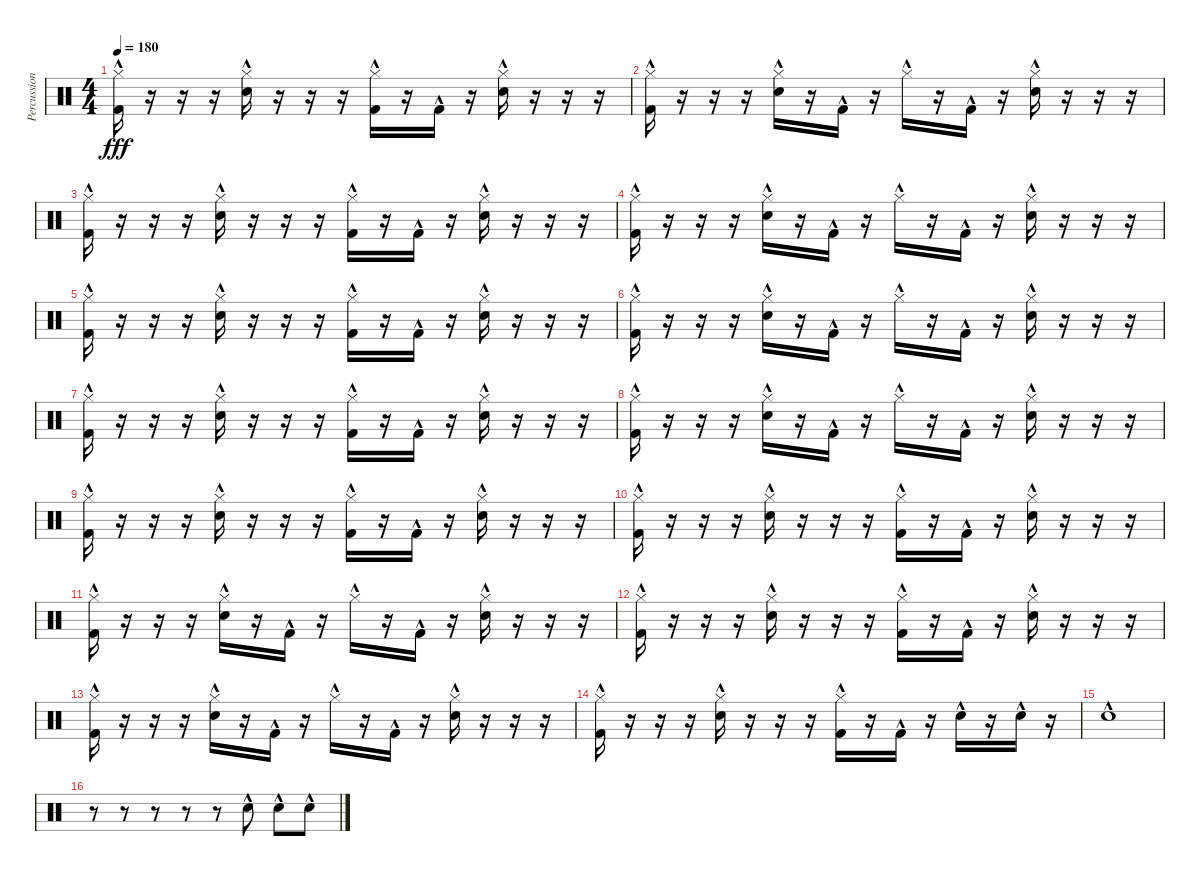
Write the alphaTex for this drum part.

\track ("Percussion" "Percussion") {instrument percussion bank 2}
\staff {score}
\articulation defaults
\ts (4 4)
\tempo 180
\clef neutral
\ks c
("Hi-Hat (closed)"{hac} "Kick (hit) 2"{hac}).16{dy fff} r.16 r.16 r.16 ("Hi-Hat (closed)"{hac} "Snare (hit) 2"{hac}).16 r.16 r.16 r.16 ("Hi-Hat (closed)"{hac} "Kick (hit) 2"{hac}).16 r.16 "Kick (hit) 2"{hac}.16 r.16 ("Hi-Hat (closed)"{hac} "Snare (hit) 2"{hac}).16 r.16 r.16 r.16 |
("Hi-Hat (closed)"{hac} "Kick (hit) 2"{hac}).16 r.16 r.16 r.16 ("Hi-Hat (closed)"{hac} "Snare (hit) 2"{hac}).16 r.16 "Kick (hit) 2"{hac}.16 r.16 "Hi-Hat (closed)"{hac}.16 r.16 "Kick (hit) 2"{hac}.16 r.16 ("Hi-Hat (closed)"{hac} "Snare (hit) 2"{hac}).16 r.16 r.16 r.16 |
("Hi-Hat (closed)"{hac} "Kick (hit) 2"{hac}).16 r.16 r.16 r.16 ("Hi-Hat (closed)"{hac} "Snare (hit) 2"{hac}).16 r.16 r.16 r.16 ("Hi-Hat (closed)"{hac} "Kick (hit) 2"{hac}).16 r.16 "Kick (hit) 2"{hac}.16 r.16 ("Hi-Hat (closed)"{hac} "Snare (hit) 2"{hac}).16 r.16 r.16 r.16 |
("Hi-Hat (closed)"{hac} "Kick (hit) 2"{hac}).16 r.16 r.16 r.16 ("Hi-Hat (closed)"{hac} "Snare (hit) 2"{hac}).16 r.16 "Kick (hit) 2"{hac}.16 r.16 "Hi-Hat (closed)"{hac}.16 r.16 "Kick (hit) 2"{hac}.16 r.16 ("Hi-Hat (closed)"{hac} "Snare (hit) 2"{hac}).16 r.16 r.16 r.16 |
("Hi-Hat (closed)"{hac} "Kick (hit) 2"{hac}).16 r.16 r.16 r.16 ("Hi-Hat (closed)"{hac} "Snare (hit) 2"{hac}).16 r.16 r.16 r.16 ("Hi-Hat (closed)"{hac} "Kick (hit) 2"{hac}).16 r.16 "Kick (hit) 2"{hac}.16 r.16 ("Hi-Hat (closed)"{hac} "Snare (hit) 2"{hac}).16 r.16 r.16 r.16 |
("Hi-Hat (closed)"{hac} "Kick (hit) 2"{hac}).16 r.16 r.16 r.16 ("Hi-Hat (closed)"{hac} "Snare (hit) 2"{hac}).16 r.16 "Kick (hit) 2"{hac}.16 r.16 "Hi-Hat (closed)"{hac}.16 r.16 "Kick (hit) 2"{hac}.16 r.16 ("Hi-Hat (closed)"{hac} "Snare (hit) 2"{hac}).16 r.16 r.16 r.16 |
("Hi-Hat (closed)"{hac} "Kick (hit) 2"{hac}).16 r.16 r.16 r.16 ("Hi-Hat (closed)"{hac} "Snare (hit) 2"{hac}).16 r.16 r.16 r.16 ("Hi-Hat (closed)"{hac} "Kick (hit) 2"{hac}).16 r.16 "Kick (hit) 2"{hac}.16 r.16 ("Hi-Hat (closed)"{hac} "Snare (hit) 2"{hac}).16 r.16 r.16 r.16 |
("Hi-Hat (closed)"{hac} "Kick (hit) 2"{hac}).16 r.16 r.16 r.16 ("Hi-Hat (closed)"{hac} "Snare (hit) 2"{hac}).16 r.16 "Kick (hit) 2"{hac}.16 r.16 "Hi-Hat (closed)"{hac}.16 r.16 "Kick (hit) 2"{hac}.16 r.16 ("Hi-Hat (closed)"{hac} "Snare (hit) 2"{hac}).16 r.16 r.16 r.16 |
("Hi-Hat (closed)"{hac} "Kick (hit) 2"{hac}).16 r.16 r.16 r.16 ("Hi-Hat (closed)"{hac} "Snare (hit) 2"{hac}).16 r.16 r.16 r.16 ("Hi-Hat (closed)"{hac} "Kick (hit) 2"{hac}).16 r.16 "Kick (hit) 2"{hac}.16 r.16 ("Hi-Hat (closed)"{hac} "Snare (hit) 2"{hac}).16 r.16 r.16 r.16 |
("Hi-Hat (closed)"{hac} "Kick (hit) 2"{hac}).16 r.16 r.16 r.16 ("Hi-Hat (closed)"{hac} "Snare (hit) 2"{hac}).16 r.16 r.16 r.16 ("Hi-Hat (closed)"{hac} "Kick (hit) 2"{hac}).16 r.16 "Kick (hit) 2"{hac}.16 r.16 ("Hi-Hat (closed)"{hac} "Snare (hit) 2"{hac}).16 r.16 r.16 r.16 |
("Hi-Hat (closed)"{hac} "Kick (hit) 2"{hac}).16 r.16 r.16 r.16 ("Hi-Hat (closed)"{hac} "Snare (hit) 2"{hac}).16 r.16 "Kick (hit) 2"{hac}.16 r.16 "Hi-Hat (closed)"{hac}.16 r.16 "Kick (hit) 2"{hac}.16 r.16 ("Hi-Hat (closed)"{hac} "Snare (hit) 2"{hac}).16 r.16 r.16 r.16 |
("Hi-Hat (closed)"{hac} "Kick (hit) 2"{hac}).16 r.16 r.16 r.16 ("Hi-Hat (closed)"{hac} "Snare (hit) 2"{hac}).16 r.16 r.16 r.16 ("Hi-Hat (closed)"{hac} "Kick (hit) 2"{hac}).16 r.16 "Kick (hit) 2"{hac}.16 r.16 ("Hi-Hat (closed)"{hac} "Snare (hit) 2"{hac}).16 r.16 r.16 r.16 |
("Hi-Hat (closed)"{hac} "Kick (hit) 2"{hac}).16 r.16 r.16 r.16 ("Hi-Hat (closed)"{hac} "Snare (hit) 2"{hac}).16 r.16 "Kick (hit) 2"{hac}.16 r.16 "Hi-Hat (closed)"{hac}.16 r.16 "Kick (hit) 2"{hac}.16 r.16 ("Hi-Hat (closed)"{hac} "Snare (hit) 2"{hac}).16 r.16 r.16 r.16 |
("Hi-Hat (closed)"{hac} "Kick (hit) 2"{hac}).16 r.16 r.16 r.16 ("Hi-Hat (closed)"{hac} "Snare (hit) 2"{hac}).16 r.16 r.16 r.16 ("Hi-Hat (closed)"{hac} "Kick (hit) 2"{hac}).16 r.16 "Kick (hit) 2"{hac}.16 r.16 "Snare (hit) 2"{hac}.16 r.16 "Snare (hit) 2"{hac}.16 r.16 |
"Snare (hit) 2"{hac}.1 |
r.8 r.8 r.8 r.8 r.8 "Snare (hit) 2"{hac}.8 "Snare (hit) 2"{hac}.8 "Snare (hit) 2"{hac}.8
